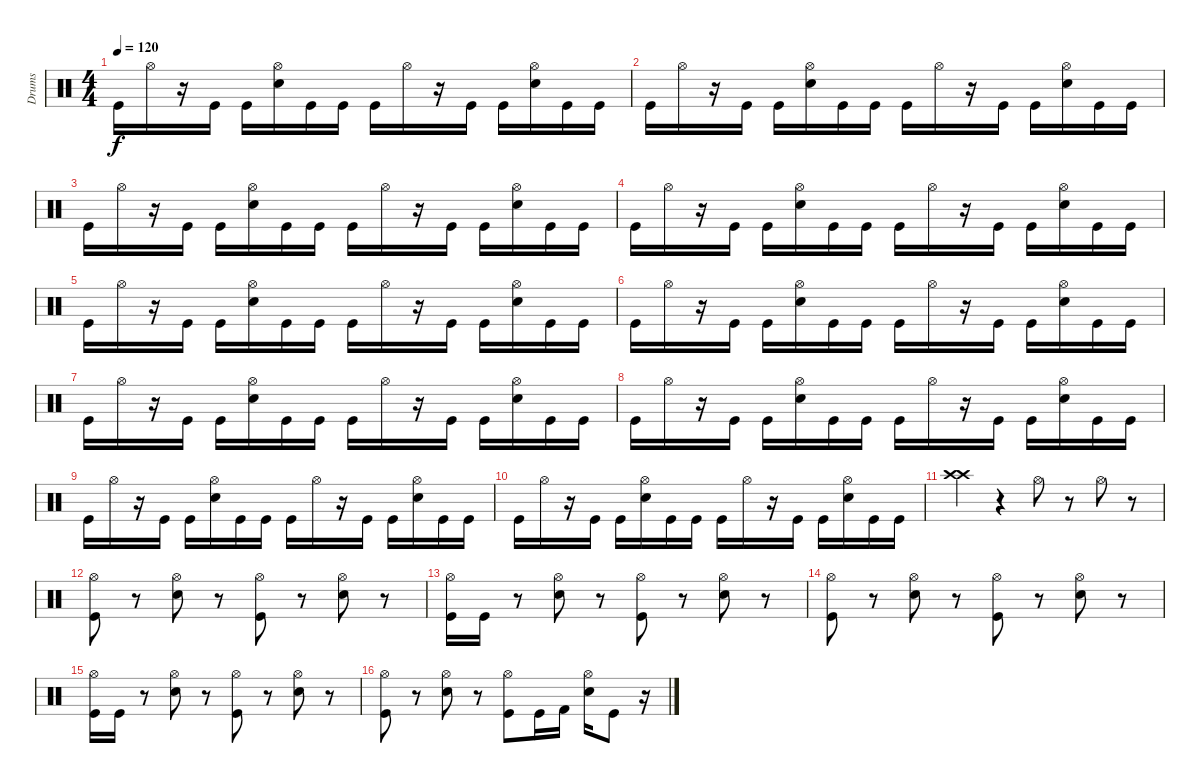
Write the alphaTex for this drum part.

\track ("Drums" "Drums") {instrument percussion}
\staff {score}
\articulation defaults
\ts (4 4)
\tempo 120
\clef neutral
\ks c "Kick (hit)".16{dy f} "Hi-Hat (open)".16
r.16 "Kick (hit)".16 "Kick (hit)".16 ("Hi-Hat (open)" "Snare (hit) 2").16 "Kick (hit)".16 "Kick (hit)".16 "Kick (hit)".16 "Hi-Hat (open)".16 r.16 "Kick (hit)".16 "Kick (hit)".16 ("Hi-Hat (open)" "Snare (hit) 2").16 "Kick (hit)".16 "Kick (hit)".16 |
"Kick (hit)".16 "Hi-Hat (open)".16 r.16 "Kick (hit)".16 "Kick (hit)".16 ("Hi-Hat (open)" "Snare (hit) 2").16 "Kick (hit)".16 "Kick (hit)".16 "Kick (hit)".16 "Hi-Hat (open)".16 r.16 "Kick (hit)".16 "Kick (hit)".16 ("Hi-Hat (open)" "Snare (hit) 2").16 "Kick (hit)".16 "Kick (hit)".16 |
"Kick (hit)".16 "Hi-Hat (open)".16 r.16 "Kick (hit)".16 "Kick (hit)".16 ("Hi-Hat (open)" "Snare (hit) 2").16 "Kick (hit)".16 "Kick (hit)".16 "Kick (hit)".16 "Hi-Hat (open)".16 r.16 "Kick (hit)".16 "Kick (hit)".16 ("Hi-Hat (open)" "Snare (hit) 2").16 "Kick (hit)".16 "Kick (hit)".16 |
"Kick (hit)".16 "Hi-Hat (open)".16 r.16 "Kick (hit)".16 "Kick (hit)".16 ("Hi-Hat (open)" "Snare (hit) 2").16 "Kick (hit)".16 "Kick (hit)".16 "Kick (hit)".16 "Hi-Hat (open)".16 r.16 "Kick (hit)".16 "Kick (hit)".16 ("Hi-Hat (open)" "Snare (hit) 2").16 "Kick (hit)".16 "Kick (hit)".16 |
"Kick (hit)".16 "Hi-Hat (open)".16 r.16 "Kick (hit)".16 "Kick (hit)".16 ("Hi-Hat (open)" "Snare (hit) 2").16 "Kick (hit)".16 "Kick (hit)".16 "Kick (hit)".16 "Hi-Hat (open)".16 r.16 "Kick (hit)".16 "Kick (hit)".16 ("Hi-Hat (open)" "Snare (hit) 2").16 "Kick (hit)".16 "Kick (hit)".16 |
"Kick (hit)".16 "Hi-Hat (open)".16 r.16 "Kick (hit)".16 "Kick (hit)".16 ("Hi-Hat (open)" "Snare (hit) 2").16 "Kick (hit)".16 "Kick (hit)".16 "Kick (hit)".16 "Hi-Hat (open)".16 r.16 "Kick (hit)".16 "Kick (hit)".16 ("Hi-Hat (open)" "Snare (hit) 2").16 "Kick (hit)".16 "Kick (hit)".16 |
"Kick (hit)".16 "Hi-Hat (open)".16 r.16 "Kick (hit)".16 "Kick (hit)".16 ("Hi-Hat (open)" "Snare (hit) 2").16 "Kick (hit)".16 "Kick (hit)".16 "Kick (hit)".16 "Hi-Hat (open)".16 r.16 "Kick (hit)".16 "Kick (hit)".16 ("Hi-Hat (open)" "Snare (hit) 2").16 "Kick (hit)".16 "Kick (hit)".16 |
"Kick (hit)".16 "Hi-Hat (open)".16 r.16 "Kick (hit)".16 "Kick (hit)".16 ("Hi-Hat (open)" "Snare (hit) 2").16 "Kick (hit)".16 "Kick (hit)".16 "Kick (hit)".16 "Hi-Hat (open)".16 r.16 "Kick (hit)".16 "Kick (hit)".16 ("Hi-Hat (open)" "Snare (hit) 2").16 "Kick (hit)".16 "Kick (hit)".16 |
"Kick (hit)".16 "Hi-Hat (open)".16 r.16 "Kick (hit)".16 "Kick (hit)".16 ("Hi-Hat (open)" "Snare (hit) 2").16 "Kick (hit)".16 "Kick (hit)".16 "Kick (hit)".16 "Hi-Hat (open)".16 r.16 "Kick (hit)".16 "Kick (hit)".16 ("Hi-Hat (open)" "Snare (hit) 2").16 "Kick (hit)".16 "Kick (hit)".16 |
"Kick (hit)".16 "Hi-Hat (open)".16 r.16 "Kick (hit)".16 "Kick (hit)".16 ("Hi-Hat (open)" "Snare (hit) 2").16 "Kick (hit)".16 "Kick (hit)".16 "Kick (hit)".16 "Hi-Hat (open)".16 r.16 "Kick (hit)".16 "Kick (hit)".16 ("Hi-Hat (open)" "Snare (hit) 2").16 "Kick (hit)".16 "Kick (hit)".16 |
("Crash high (hit)" "Crash high (hit)").4 r.4 "Hi-Hat (open)".8 r.8 "Hi-Hat (open)".8 r.8 |
("Hi-Hat (open)" "Kick (hit)").8 r.8 ("Hi-Hat (open)" "Snare (hit) 2").8 r.8 ("Hi-Hat (open)" "Kick (hit)").8 r.8 ("Hi-Hat (open)" "Snare (hit) 2").8 r.8 |
("Hi-Hat (open)" "Kick (hit)").16 "Kick (hit)".16 r.8 ("Hi-Hat (open)" "Snare (hit) 2").8 r.8 ("Hi-Hat (open)" "Kick (hit)").8 r.8 ("Hi-Hat (open)" "Snare (hit) 2").8 r.8 |
("Hi-Hat (open)" "Kick (hit)").8 r.8 ("Hi-Hat (open)" "Snare (hit) 2").8 r.8 ("Hi-Hat (open)" "Kick (hit)").8 r.8 ("Hi-Hat (open)" "Snare (hit) 2").8 r.8 |
("Hi-Hat (open)" "Kick (hit)").16 "Kick (hit)".16 r.8 ("Hi-Hat (open)" "Snare (hit) 2").8 r.8 ("Hi-Hat (open)" "Kick (hit)").8 r.8 ("Hi-Hat (open)" "Snare (hit) 2").8 r.8 |
("Hi-Hat (open)" "Kick (hit)").8 r.8 ("Hi-Hat (open)" "Snare (hit) 2").8 r.8 ("Hi-Hat (open)" "Kick (hit)").8 "Kick (hit)".16 "Kick (hit) 2".16 ("Hi-Hat (open)" "Snare (hit) 2").16 "Kick (hit)".8 r.16
